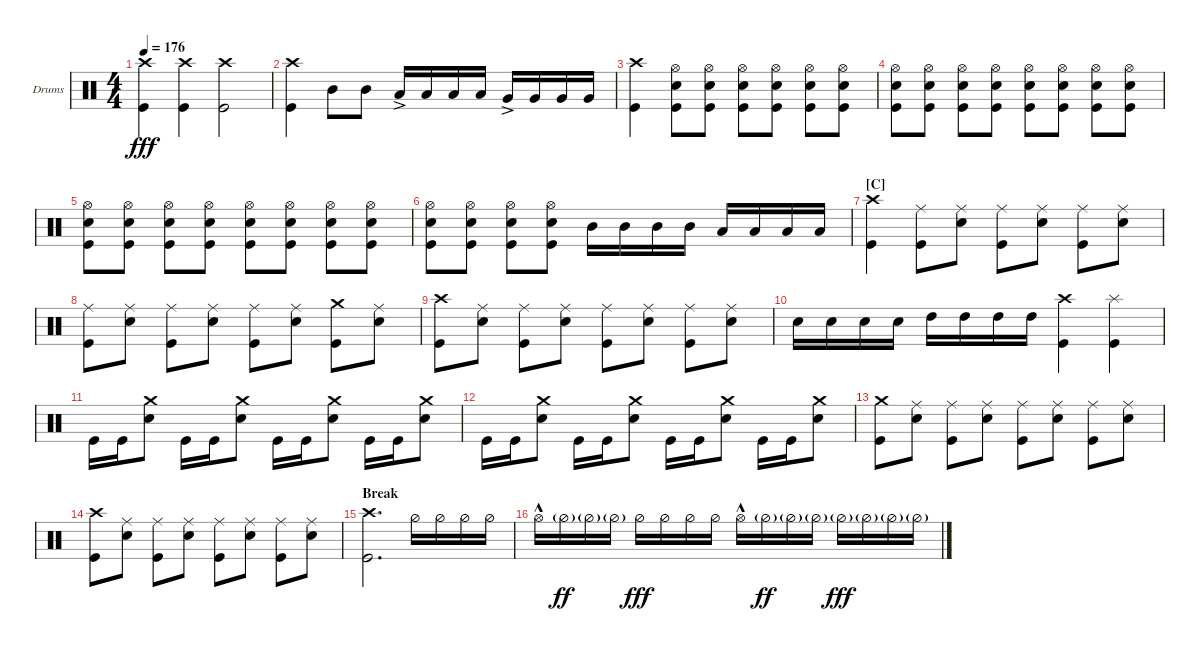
\defaultSystemsLayout 4
\bracketExtendMode groupsimilarinstruments
\firstSystemTrackNameOrientation horizontal
\otherSystemsTrackNameOrientation horizontal
\track ("Drums" "Drums") {instrument percussion}
\staff {score}
\articulation defaults
\ts (4 4)
\tempo 176
\clef neutral
\ks c
("Kick (hit)" "Crash high (hit)").4{dy fff} ("Kick (hit)" "Crash high (hit)").4 ("Kick (hit)" "Crash high (hit)").2 |
("Kick (hit)" "Crash high (hit)").4 "Mid Tom (hit)".8 "Mid Tom (hit)".8 "Low Tom (hit)"{ac}.16 "Low Tom (hit)".16 "Low Tom (hit)".16 "Low Tom (hit)".16 "Very Low Tom (hit)"{ac}.16 "Very Low Tom (hit)".16 "Very Low Tom (hit)".16 "Very Low Tom (hit)".16 |
("Kick (hit)" "Crash high (hit)").4 ("Kick (hit)" "Snare (hit) 2" "Hi-Hat (open)").8 ("Kick (hit)" "Snare (hit) 2" "Hi-Hat (open)").8 ("Kick (hit)" "Snare (hit) 2" "Hi-Hat (open)").8 ("Kick (hit)" "Snare (hit) 2" "Hi-Hat (open)").8 ("Kick (hit)" "Snare (hit) 2" "Hi-Hat (open)").8 ("Kick (hit)" "Snare (hit) 2" "Hi-Hat (open)").8 |
("Snare (hit) 2" "Kick (hit)" "Hi-Hat (open)").8 ("Kick (hit)" "Snare (hit) 2" "Hi-Hat (open)").8 ("Kick (hit)" "Snare (hit) 2" "Hi-Hat (open)").8 ("Kick (hit)" "Snare (hit) 2" "Hi-Hat (open)").8 ("Kick (hit)" "Snare (hit) 2" "Hi-Hat (open)").8 ("Kick (hit)" "Snare (hit) 2" "Hi-Hat (open)").8 ("Snare (hit) 2" "Kick (hit)" "Hi-Hat (open)").8 ("Snare (hit) 2" "Kick (hit)" "Hi-Hat (open)").8 |
("Snare (hit) 2" "Kick (hit)" "Hi-Hat (open)").8 ("Kick (hit)" "Snare (hit) 2" "Hi-Hat (open)").8 ("Kick (hit)" "Snare (hit) 2" "Hi-Hat (open)").8 ("Kick (hit)" "Snare (hit) 2" "Hi-Hat (open)").8 ("Kick (hit)" "Snare (hit) 2" "Hi-Hat (open)").8 ("Kick (hit)" "Snare (hit) 2" "Hi-Hat (open)").8 ("Snare (hit) 2" "Kick (hit)" "Hi-Hat (open)").8 ("Snare (hit) 2" "Kick (hit)" "Hi-Hat (open)").8 |
("Kick (hit)" "Snare (hit) 2" "Hi-Hat (open)").8 ("Kick (hit)" "Snare (hit) 2" "Hi-Hat (open)").8 ("Snare (hit) 2" "Kick (hit)" "Hi-Hat (open)").8 ("Snare (hit) 2" "Kick (hit)" "Hi-Hat (open)").8 "Mid Tom (hit)".16 "Mid Tom (hit)".16 "Mid Tom (hit)".16 "Mid Tom (hit)".16 "Low Tom (hit)".16 "Low Tom (hit)".16 "Low Tom (hit)".16 "Low Tom (hit)".16 |
\section ("C" "")
("Kick (hit)" "Crash high (hit)").4 ("Kick (hit)" "Ride (middle)").8 ("Snare (hit) 2" "Ride (middle)").8 ("Kick (hit)" "Ride (middle)").8 ("Snare (hit) 2" "Ride (middle)").8 ("Kick (hit)" "Ride (middle)").8 ("Snare (hit) 2" "Ride (middle)").8 |
("Kick (hit)" "Ride (middle)").8 ("Snare (hit) 2" "Ride (middle)").8 ("Kick (hit)" "Ride (middle)").8 ("Snare (hit) 2" "Ride (middle)").8 ("Kick (hit)" "Ride (middle)").8 ("Snare (hit) 2" "Ride (middle)").8 ("Kick (hit)" "Crash medium (hit)").8 ("Snare (hit) 2" "Ride (middle)").8 |
("Kick (hit)" "Crash high (hit)").8 ("Snare (hit) 2" "Ride (middle)").8 ("Kick (hit)" "Ride (middle)").8 ("Snare (hit) 2" "Ride (middle)").8 ("Kick (hit)" "Ride (middle)").8 ("Snare (hit) 2" "Ride (middle)").8 ("Kick (hit)" "Ride (middle)").8 ("Snare (hit) 2" "Ride (middle)").8 |
"Snare (hit) 2".16 "Snare (hit) 2".16 "Snare (hit) 2".16 "Snare (hit) 2".16 "High Tom (hit)".16 "High Tom (hit)".16 "High Tom (hit)".16 "High Tom (hit)".16 ("Kick (hit)" "Crash high (hit)").4 ("Splash (hit)" "Kick (hit)").4 |
"Kick (hit)".16 "Kick (hit)".16 ("Snare (hit) 2" "Crash medium (hit)").8 "Kick (hit)".16 "Kick (hit)".16 ("Snare (hit) 2" "Crash medium (hit)").8 "Kick (hit)".16 "Kick (hit)".16 ("Snare (hit) 2" "Crash medium (hit)").8 "Kick (hit)".16 "Kick (hit)".16 ("Snare (hit) 2" "Crash medium (hit)").8 |
"Kick (hit)".16 "Kick (hit)".16 ("Snare (hit) 2" "Crash medium (hit)").8 "Kick (hit)".16 "Kick (hit)".16 ("Snare (hit) 2" "Crash medium (hit)").8 "Kick (hit)".16 "Kick (hit)".16 ("Snare (hit) 2" "Crash medium (hit)").8 "Kick (hit)".16 "Kick (hit)".16 ("Snare (hit) 2" "Crash medium (hit)").8 |
("Kick (hit)" "Crash medium (hit)").8 ("Snare (hit) 2" "Ride (middle)").8 ("Kick (hit)" "Ride (middle)").8 ("Snare (hit) 2" "Ride (middle)").8 ("Kick (hit)" "Ride (middle)").8 ("Snare (hit) 2" "Ride (middle)").8 ("Kick (hit)" "Ride (middle)").8 ("Snare (hit) 2" "Ride (middle)").8 |
("Kick (hit)" "Crash high (hit)").8 ("Snare (hit) 2" "Ride (middle)").8 ("Kick (hit)" "Ride (middle)").8 ("Snare (hit) 2" "Ride (middle)").8 ("Kick (hit)" "Ride (middle)").8 ("Snare (hit) 2" "Ride (middle)").8 ("Kick (hit)" "Ride (middle)").8 ("Snare (hit) 2" "Ride (middle)").8 |
\section ("" "Break")
("Kick (hit)" "Crash high (hit)").2{d} "Hi-Hat (half)".16 "Hi-Hat (half)".16 "Hi-Hat (half)".16 "Hi-Hat (half)".16 |
"Hi-Hat (open)"{hac}.16 "Hi-Hat (half)"{g}.16{dy ff} "Hi-Hat (half)"{g}.16 "Hi-Hat (half)"{g}.16 "Hi-Hat (half)".16{dy fff} "Hi-Hat (half)".16 "Hi-Hat (half)".16 "Hi-Hat (half)".16 "Hi-Hat (open)"{hac}.16 "Hi-Hat (half)"{g}.16{dy ff} "Hi-Hat (half)"{g}.16 "Hi-Hat (half)"{g}.16 "Hi-Hat (half)"{g}.16{dy fff} "Hi-Hat (half)"{g}.16 "Hi-Hat (half)"{g}.16 "Hi-Hat (half)"{g}.16
